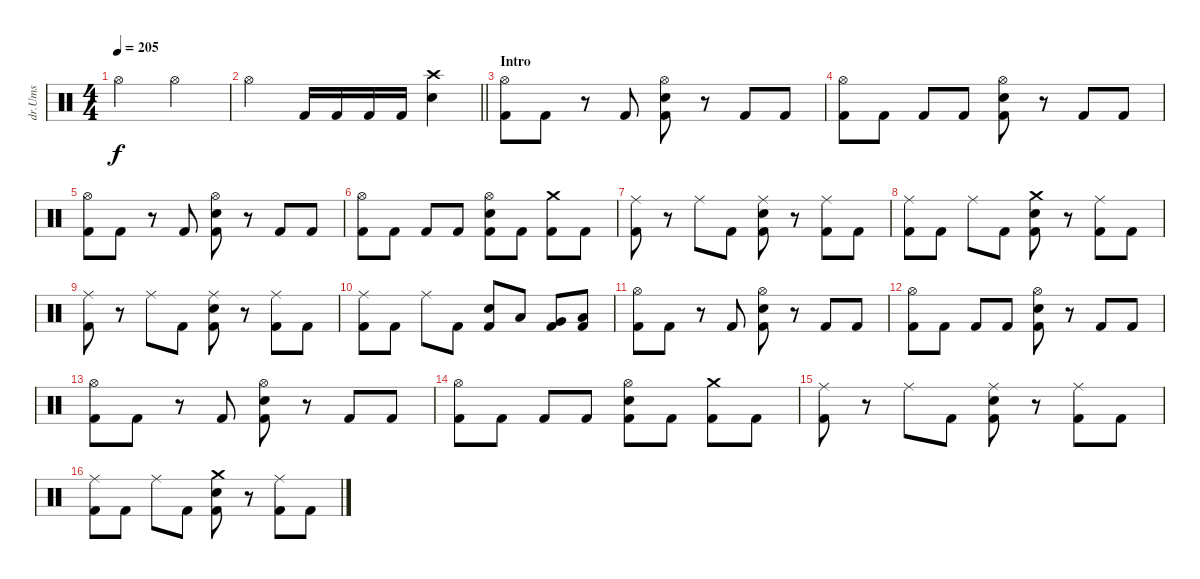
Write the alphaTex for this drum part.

\track ("dr.Ums" "dr.Ums") {instrument percussion}
\staff {score}
\articulation defaults
\ts (4 4)
\tempo 205
\clef neutral
\ks c "Hi-Hat (open)".2{dy f} "Hi-Hat (open)".2
|
\barLineRight lightlight "Hi-Hat (open)".2 "Kick (hit) 2".16 "Kick (hit) 2".16 "Kick (hit) 2".16 "Kick (hit) 2".16
("Snare (hit) 2" "Crash high (hit)").4 |
\section ("" "Intro")
("Hi-Hat (open)" "Kick (hit) 2").8 "Kick (hit) 2".8 r.8 "Kick (hit) 2".8 ("Hi-Hat (open)" "Snare (hit) 2" "Kick (hit) 2").8 r.8 "Kick (hit) 2".8 "Kick (hit) 2".8 |
("Hi-Hat (open)" "Kick (hit) 2").8 "Kick (hit) 2".8 "Kick (hit) 2".8 "Kick (hit) 2".8 ("Hi-Hat (open)" "Snare (hit) 2" "Kick (hit) 2").8 r.8 "Kick (hit) 2".8 "Kick (hit) 2".8 |
("Hi-Hat (open)" "Kick (hit) 2").8 "Kick (hit) 2".8 r.8 "Kick (hit) 2".8 ("Hi-Hat (open)" "Snare (hit) 2" "Kick (hit) 2").8 r.8 "Kick (hit) 2".8 "Kick (hit) 2".8 |
("Hi-Hat (open)" "Kick (hit) 2").8 "Kick (hit) 2".8 "Kick (hit) 2".8 "Kick (hit) 2".8 ("Hi-Hat (open)" "Snare (hit) 2" "Kick (hit) 2").8 "Kick (hit) 2".8 ("Crash medium (hit)" "Kick (hit) 2").8 "Kick (hit) 2".8 |
("Ride (middle)" "Kick (hit) 2").8 r.8 "Ride (middle)".8 "Kick (hit) 2".8 ("Ride (middle)" "Snare (hit) 2" "Kick (hit) 2").8 r.8 ("Ride (middle)" "Kick (hit) 2").8 "Kick (hit) 2".8 |
("Ride (middle)" "Kick (hit) 2").8 "Kick (hit) 2".8 "Ride (middle)".8 "Kick (hit) 2".8 ("Crash medium (hit)" "Snare (hit) 2" "Kick (hit) 2").8 r.8 ("Ride (middle)" "Kick (hit) 2").8 "Kick (hit) 2".8 |
("Ride (middle)" "Kick (hit) 2").8 r.8 "Ride (middle)".8 "Kick (hit) 2".8 ("Ride (middle)" "Snare (hit) 2" "Kick (hit) 2").8 r.8 ("Ride (middle)" "Kick (hit) 2").8 "Kick (hit) 2".8 |
("Ride (middle)" "Kick (hit) 2").8 "Kick (hit) 2".8 "Ride (middle)".8 "Kick (hit) 2".8 ("Snare (hit) 2" "Kick (hit) 2").8 "Low Tom (hit)".8 ("Very Low Tom (hit)" "Kick (hit) 2").8 ("Low Floor Tom (hit)" "Kick (hit) 2").8 |
("Hi-Hat (open)" "Kick (hit) 2").8 "Kick (hit) 2".8 r.8 "Kick (hit) 2".8 ("Hi-Hat (open)" "Snare (hit) 2" "Kick (hit) 2").8 r.8 "Kick (hit) 2".8 "Kick (hit) 2".8 |
("Hi-Hat (open)" "Kick (hit) 2").8 "Kick (hit) 2".8 "Kick (hit) 2".8 "Kick (hit) 2".8 ("Hi-Hat (open)" "Snare (hit) 2" "Kick (hit) 2").8 r.8 "Kick (hit) 2".8 "Kick (hit) 2".8 |
("Hi-Hat (open)" "Kick (hit) 2").8 "Kick (hit) 2".8 r.8 "Kick (hit) 2".8 ("Hi-Hat (open)" "Snare (hit) 2" "Kick (hit) 2").8 r.8 "Kick (hit) 2".8 "Kick (hit) 2".8 |
("Hi-Hat (open)" "Kick (hit) 2").8 "Kick (hit) 2".8 "Kick (hit) 2".8 "Kick (hit) 2".8 ("Hi-Hat (open)" "Snare (hit) 2" "Kick (hit) 2").8 "Kick (hit) 2".8 ("Crash medium (hit)" "Kick (hit) 2").8 "Kick (hit) 2".8 |
("Ride (middle)" "Kick (hit) 2").8 r.8 "Ride (middle)".8 "Kick (hit) 2".8 ("Ride (middle)" "Snare (hit) 2" "Kick (hit) 2").8 r.8 ("Ride (middle)" "Kick (hit) 2").8 "Kick (hit) 2".8 |
("Ride (middle)" "Kick (hit) 2").8 "Kick (hit) 2".8 "Ride (middle)".8 "Kick (hit) 2".8 ("Crash medium (hit)" "Snare (hit) 2" "Kick (hit) 2").8 r.8 ("Ride (middle)" "Kick (hit) 2").8 "Kick (hit) 2".8
